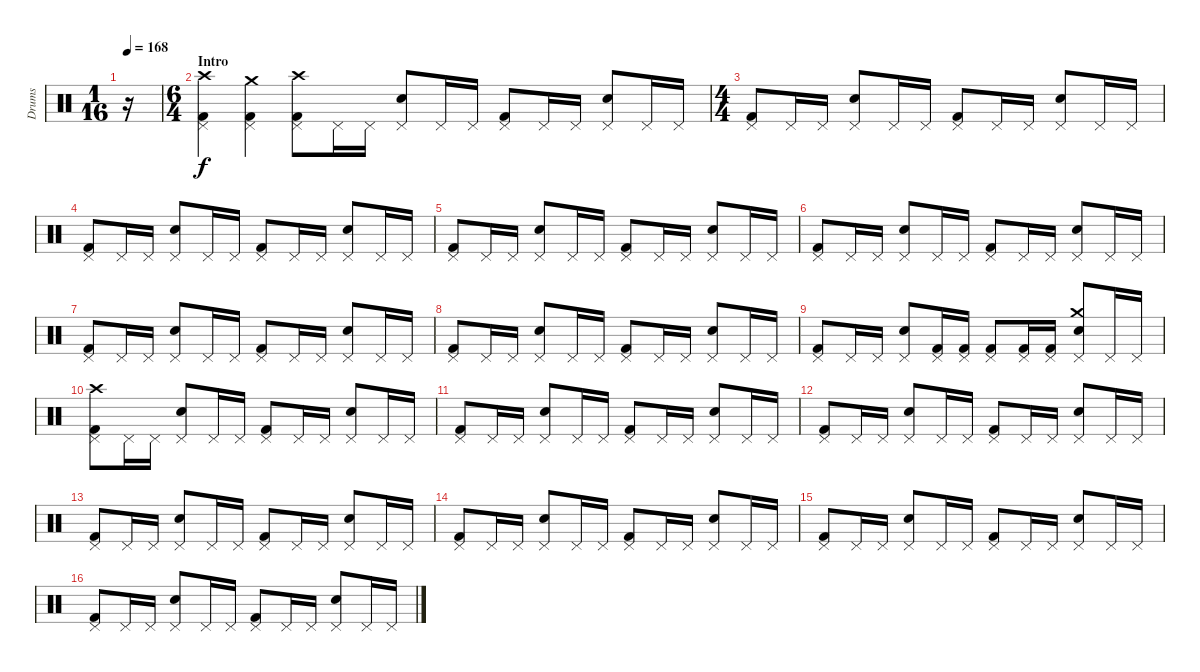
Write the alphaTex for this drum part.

\track ("Drums" "Drums") {instrument percussion}
\staff {score}
\articulation defaults
\ts (1 16)
\tempo 168
\clef neutral
\ks c
r.16{dy f} |
\ts (6 4)
\section ("" "Intro")
("Kick (hit) 2" "Pedal Hi-Hat (hit)" "Crash high (hit)").4 ("Kick (hit) 2" "Pedal Hi-Hat (hit)" "Crash medium (hit)").4 ("Kick (hit) 2" "Pedal Hi-Hat (hit)" "Crash high (hit)").8 "Pedal Hi-Hat (hit)".16 "Pedal Hi-Hat (hit)".16 ("Snare (hit) 2" "Pedal Hi-Hat (hit)").8 "Pedal Hi-Hat (hit)".16 "Pedal Hi-Hat (hit)".16 ("Kick (hit) 2" "Pedal Hi-Hat (hit)").8 "Pedal Hi-Hat (hit)".16 "Pedal Hi-Hat (hit)".16 ("Snare (hit) 2" "Pedal Hi-Hat (hit)").8 "Pedal Hi-Hat (hit)".16 "Pedal Hi-Hat (hit)".16 |
\ts (4 4)
("Kick (hit) 2" "Pedal Hi-Hat (hit)").8 "Pedal Hi-Hat (hit)".16 "Pedal Hi-Hat (hit)".16 ("Snare (hit) 2" "Pedal Hi-Hat (hit)").8 "Pedal Hi-Hat (hit)".16 "Pedal Hi-Hat (hit)".16 ("Kick (hit) 2" "Pedal Hi-Hat (hit)").8 "Pedal Hi-Hat (hit)".16 "Pedal Hi-Hat (hit)".16 ("Snare (hit) 2" "Pedal Hi-Hat (hit)").8 "Pedal Hi-Hat (hit)".16 "Pedal Hi-Hat (hit)".16 |
("Kick (hit) 2" "Pedal Hi-Hat (hit)").8 "Pedal Hi-Hat (hit)".16 "Pedal Hi-Hat (hit)".16 ("Snare (hit) 2" "Pedal Hi-Hat (hit)").8 "Pedal Hi-Hat (hit)".16 "Pedal Hi-Hat (hit)".16 ("Kick (hit) 2" "Pedal Hi-Hat (hit)").8 "Pedal Hi-Hat (hit)".16 "Pedal Hi-Hat (hit)".16 ("Snare (hit) 2" "Pedal Hi-Hat (hit)").8 "Pedal Hi-Hat (hit)".16 "Pedal Hi-Hat (hit)".16 |
("Kick (hit) 2" "Pedal Hi-Hat (hit)").8 "Pedal Hi-Hat (hit)".16 "Pedal Hi-Hat (hit)".16 ("Snare (hit) 2" "Pedal Hi-Hat (hit)").8 "Pedal Hi-Hat (hit)".16 "Pedal Hi-Hat (hit)".16 ("Kick (hit) 2" "Pedal Hi-Hat (hit)").8 "Pedal Hi-Hat (hit)".16 "Pedal Hi-Hat (hit)".16 ("Snare (hit) 2" "Pedal Hi-Hat (hit)").8 "Pedal Hi-Hat (hit)".16 "Pedal Hi-Hat (hit)".16 |
("Kick (hit) 2" "Pedal Hi-Hat (hit)").8 "Pedal Hi-Hat (hit)".16 "Pedal Hi-Hat (hit)".16 ("Snare (hit) 2" "Pedal Hi-Hat (hit)").8 "Pedal Hi-Hat (hit)".16 "Pedal Hi-Hat (hit)".16 ("Kick (hit) 2" "Pedal Hi-Hat (hit)").8 "Pedal Hi-Hat (hit)".16 "Pedal Hi-Hat (hit)".16 ("Snare (hit) 2" "Pedal Hi-Hat (hit)").8 "Pedal Hi-Hat (hit)".16 "Pedal Hi-Hat (hit)".16 |
("Kick (hit) 2" "Pedal Hi-Hat (hit)").8 "Pedal Hi-Hat (hit)".16 "Pedal Hi-Hat (hit)".16 ("Snare (hit) 2" "Pedal Hi-Hat (hit)").8 "Pedal Hi-Hat (hit)".16 "Pedal Hi-Hat (hit)".16 ("Kick (hit) 2" "Pedal Hi-Hat (hit)").8 "Pedal Hi-Hat (hit)".16 "Pedal Hi-Hat (hit)".16 ("Snare (hit) 2" "Pedal Hi-Hat (hit)").8 "Pedal Hi-Hat (hit)".16 "Pedal Hi-Hat (hit)".16 |
("Kick (hit) 2" "Pedal Hi-Hat (hit)").8 "Pedal Hi-Hat (hit)".16 "Pedal Hi-Hat (hit)".16 ("Snare (hit) 2" "Pedal Hi-Hat (hit)").8 "Pedal Hi-Hat (hit)".16 "Pedal Hi-Hat (hit)".16 ("Kick (hit) 2" "Pedal Hi-Hat (hit)").8 "Pedal Hi-Hat (hit)".16 "Pedal Hi-Hat (hit)".16 ("Snare (hit) 2" "Pedal Hi-Hat (hit)").8 "Pedal Hi-Hat (hit)".16 "Pedal Hi-Hat (hit)".16 |
("Kick (hit) 2" "Pedal Hi-Hat (hit)").8 "Pedal Hi-Hat (hit)".16 "Pedal Hi-Hat (hit)".16 ("Snare (hit) 2" "Pedal Hi-Hat (hit)").8 ("Kick (hit) 2" "Pedal Hi-Hat (hit)").16 ("Kick (hit) 2" "Pedal Hi-Hat (hit)").16 ("Kick (hit) 2" "Pedal Hi-Hat (hit)").8 ("Kick (hit) 2" "Pedal Hi-Hat (hit)").16 ("Kick (hit) 2" "Pedal Hi-Hat (hit)").16 ("Snare (hit) 2" "Pedal Hi-Hat (hit)" "Crash medium (hit)").8 "Pedal Hi-Hat (hit)".16 "Pedal Hi-Hat (hit)".16 |
("Kick (hit) 2" "Pedal Hi-Hat (hit)" "Crash high (hit)").8 "Pedal Hi-Hat (hit)".16 "Pedal Hi-Hat (hit)".16 ("Snare (hit) 2" "Pedal Hi-Hat (hit)").8 "Pedal Hi-Hat (hit)".16 "Pedal Hi-Hat (hit)".16 ("Kick (hit) 2" "Pedal Hi-Hat (hit)").8 "Pedal Hi-Hat (hit)".16 "Pedal Hi-Hat (hit)".16 ("Snare (hit) 2" "Pedal Hi-Hat (hit)").8 "Pedal Hi-Hat (hit)".16 "Pedal Hi-Hat (hit)".16 |
("Kick (hit) 2" "Pedal Hi-Hat (hit)").8 "Pedal Hi-Hat (hit)".16 "Pedal Hi-Hat (hit)".16 ("Snare (hit) 2" "Pedal Hi-Hat (hit)").8 "Pedal Hi-Hat (hit)".16 "Pedal Hi-Hat (hit)".16 ("Kick (hit) 2" "Pedal Hi-Hat (hit)").8 "Pedal Hi-Hat (hit)".16 "Pedal Hi-Hat (hit)".16 ("Snare (hit) 2" "Pedal Hi-Hat (hit)").8 "Pedal Hi-Hat (hit)".16 "Pedal Hi-Hat (hit)".16 |
("Kick (hit) 2" "Pedal Hi-Hat (hit)").8 "Pedal Hi-Hat (hit)".16 "Pedal Hi-Hat (hit)".16 ("Snare (hit) 2" "Pedal Hi-Hat (hit)").8 "Pedal Hi-Hat (hit)".16 "Pedal Hi-Hat (hit)".16 ("Kick (hit) 2" "Pedal Hi-Hat (hit)").8 "Pedal Hi-Hat (hit)".16 "Pedal Hi-Hat (hit)".16 ("Snare (hit) 2" "Pedal Hi-Hat (hit)").8 "Pedal Hi-Hat (hit)".16 "Pedal Hi-Hat (hit)".16 |
("Kick (hit) 2" "Pedal Hi-Hat (hit)").8 "Pedal Hi-Hat (hit)".16 "Pedal Hi-Hat (hit)".16 ("Snare (hit) 2" "Pedal Hi-Hat (hit)").8 "Pedal Hi-Hat (hit)".16 "Pedal Hi-Hat (hit)".16 ("Kick (hit) 2" "Pedal Hi-Hat (hit)").8 "Pedal Hi-Hat (hit)".16 "Pedal Hi-Hat (hit)".16 ("Snare (hit) 2" "Pedal Hi-Hat (hit)").8 "Pedal Hi-Hat (hit)".16 "Pedal Hi-Hat (hit)".16 |
("Kick (hit) 2" "Pedal Hi-Hat (hit)").8 "Pedal Hi-Hat (hit)".16 "Pedal Hi-Hat (hit)".16 ("Snare (hit) 2" "Pedal Hi-Hat (hit)").8 "Pedal Hi-Hat (hit)".16 "Pedal Hi-Hat (hit)".16 ("Kick (hit) 2" "Pedal Hi-Hat (hit)").8 "Pedal Hi-Hat (hit)".16 "Pedal Hi-Hat (hit)".16 ("Snare (hit) 2" "Pedal Hi-Hat (hit)").8 "Pedal Hi-Hat (hit)".16 "Pedal Hi-Hat (hit)".16 |
("Kick (hit) 2" "Pedal Hi-Hat (hit)").8 "Pedal Hi-Hat (hit)".16 "Pedal Hi-Hat (hit)".16 ("Snare (hit) 2" "Pedal Hi-Hat (hit)").8 "Pedal Hi-Hat (hit)".16 "Pedal Hi-Hat (hit)".16 ("Kick (hit) 2" "Pedal Hi-Hat (hit)").8 "Pedal Hi-Hat (hit)".16 "Pedal Hi-Hat (hit)".16 ("Snare (hit) 2" "Pedal Hi-Hat (hit)").8 "Pedal Hi-Hat (hit)".16 "Pedal Hi-Hat (hit)".16 |
("Kick (hit) 2" "Pedal Hi-Hat (hit)").8 "Pedal Hi-Hat (hit)".16 "Pedal Hi-Hat (hit)".16 ("Snare (hit) 2" "Pedal Hi-Hat (hit)").8 "Pedal Hi-Hat (hit)".16 "Pedal Hi-Hat (hit)".16 ("Kick (hit) 2" "Pedal Hi-Hat (hit)").8 "Pedal Hi-Hat (hit)".16 "Pedal Hi-Hat (hit)".16 ("Snare (hit) 2" "Pedal Hi-Hat (hit)").8 "Pedal Hi-Hat (hit)".16 "Pedal Hi-Hat (hit)".16
